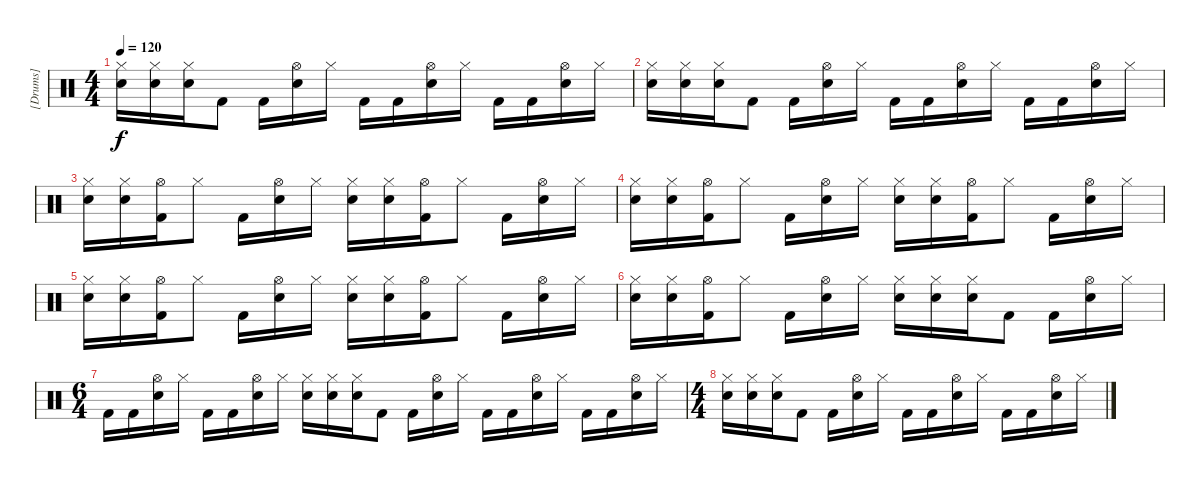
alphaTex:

\track ("[Drums]" "[Drums]") {instrument percussion}
\staff {score}
\articulation defaults
\ts (4 4)
\tempo 120
\clef neutral
\ks c
("Hi-Hat (closed)" "Snare (hit) 2").16{dy f} ("Hi-Hat (closed)" "Snare (hit) 2").16 ("Hi-Hat (closed)" "Snare (hit) 2").16 "Kick (hit) 2".8 "Kick (hit) 2".16 ("Hi-Hat (open)" "Electric Snare (hit)").16 "Hi-Hat (closed)".16 "Kick (hit) 2".16 "Kick (hit) 2".16 ("Hi-Hat (open)" "Electric Snare (hit)").16 "Hi-Hat (closed)".16 "Kick (hit) 2".16 "Kick (hit) 2".16 ("Hi-Hat (open)" "Electric Snare (hit)").16 "Hi-Hat (closed)".16 |
("Hi-Hat (closed)" "Snare (hit) 2").16 ("Hi-Hat (closed)" "Snare (hit) 2").16 ("Hi-Hat (closed)" "Snare (hit) 2").16 "Kick (hit) 2".8 "Kick (hit) 2".16 ("Hi-Hat (open)" "Electric Snare (hit)").16 "Hi-Hat (closed)".16 "Kick (hit) 2".16 "Kick (hit) 2".16 ("Hi-Hat (open)" "Electric Snare (hit)").16 "Hi-Hat (closed)".16 "Kick (hit) 2".16 "Kick (hit) 2".16 ("Hi-Hat (open)" "Electric Snare (hit)").16 "Hi-Hat (closed)".16 |
("Hi-Hat (closed)" "Electric Snare (hit)").16 ("Hi-Hat (closed)" "Electric Snare (hit)").16 ("Hi-Hat (open)" "Kick (hit) 2").16 "Hi-Hat (closed)".8 "Kick (hit) 2".16 ("Hi-Hat (open)" "Electric Snare (hit)").16 "Hi-Hat (closed)".16 ("Hi-Hat (closed)" "Electric Snare (hit)").16 ("Hi-Hat (closed)" "Electric Snare (hit)").16 ("Hi-Hat (open)" "Kick (hit) 2").16 "Hi-Hat (closed)".8 "Kick (hit) 2".16 ("Hi-Hat (open)" "Electric Snare (hit)").16 "Hi-Hat (closed)".16 |
("Hi-Hat (closed)" "Electric Snare (hit)").16 ("Hi-Hat (closed)" "Electric Snare (hit)").16 ("Hi-Hat (open)" "Kick (hit) 2").16 "Hi-Hat (closed)".8 "Kick (hit) 2".16 ("Hi-Hat (open)" "Electric Snare (hit)").16 "Hi-Hat (closed)".16 ("Hi-Hat (closed)" "Electric Snare (hit)").16 ("Hi-Hat (closed)" "Electric Snare (hit)").16 ("Hi-Hat (open)" "Kick (hit) 2").16 "Hi-Hat (closed)".8 "Kick (hit) 2".16 ("Hi-Hat (open)" "Electric Snare (hit)").16 "Hi-Hat (closed)".16 |
("Hi-Hat (closed)" "Electric Snare (hit)").16 ("Hi-Hat (closed)" "Electric Snare (hit)").16 ("Hi-Hat (open)" "Kick (hit) 2").16 "Hi-Hat (closed)".8 "Kick (hit) 2".16 ("Hi-Hat (open)" "Electric Snare (hit)").16 "Hi-Hat (closed)".16 ("Hi-Hat (closed)" "Electric Snare (hit)").16 ("Hi-Hat (closed)" "Electric Snare (hit)").16 ("Hi-Hat (open)" "Kick (hit) 2").16 "Hi-Hat (closed)".8 "Kick (hit) 2".16 ("Hi-Hat (open)" "Electric Snare (hit)").16 "Hi-Hat (closed)".16 |
("Hi-Hat (closed)" "Electric Snare (hit)").16 ("Hi-Hat (closed)" "Electric Snare (hit)").16 ("Hi-Hat (open)" "Kick (hit) 2").16 "Hi-Hat (closed)".8 "Kick (hit) 2".16 ("Hi-Hat (open)" "Electric Snare (hit)").16 "Hi-Hat (closed)".16 ("Hi-Hat (closed)" "Snare (hit) 2").16 ("Hi-Hat (closed)" "Snare (hit) 2").16 ("Hi-Hat (closed)" "Snare (hit) 2").16 "Kick (hit) 2".8 "Kick (hit) 2".16 ("Hi-Hat (open)" "Electric Snare (hit)").16 "Hi-Hat (closed)".16 |
\ts (6 4)
"Kick (hit) 2".16 "Kick (hit) 2".16 ("Hi-Hat (open)" "Electric Snare (hit)").16 "Hi-Hat (closed)".16 "Kick (hit) 2".16 "Kick (hit) 2".16 ("Hi-Hat (open)" "Electric Snare (hit)").16 "Hi-Hat (closed)".16 ("Hi-Hat (closed)" "Snare (hit) 2").16 ("Hi-Hat (closed)" "Snare (hit) 2").16 ("Hi-Hat (closed)" "Snare (hit) 2").16 "Kick (hit) 2".8 "Kick (hit) 2".16 ("Hi-Hat (open)" "Electric Snare (hit)").16 "Hi-Hat (closed)".16 "Kick (hit) 2".16 "Kick (hit) 2".16 ("Hi-Hat (open)" "Electric Snare (hit)").16 "Hi-Hat (closed)".16 "Kick (hit) 2".16 "Kick (hit) 2".16 ("Hi-Hat (open)" "Electric Snare (hit)").16 "Hi-Hat (closed)".16 |
\ts (4 4)
("Hi-Hat (closed)" "Snare (hit) 2").16 ("Hi-Hat (closed)" "Snare (hit) 2").16 ("Hi-Hat (closed)" "Snare (hit) 2").16 "Kick (hit) 2".8 "Kick (hit) 2".16 ("Hi-Hat (open)" "Electric Snare (hit)").16 "Hi-Hat (closed)".16 "Kick (hit) 2".16 "Kick (hit) 2".16 ("Hi-Hat (open)" "Electric Snare (hit)").16 "Hi-Hat (closed)".16 "Kick (hit) 2".16 "Kick (hit) 2".16 ("Hi-Hat (open)" "Electric Snare (hit)").16 "Hi-Hat (closed)".16
